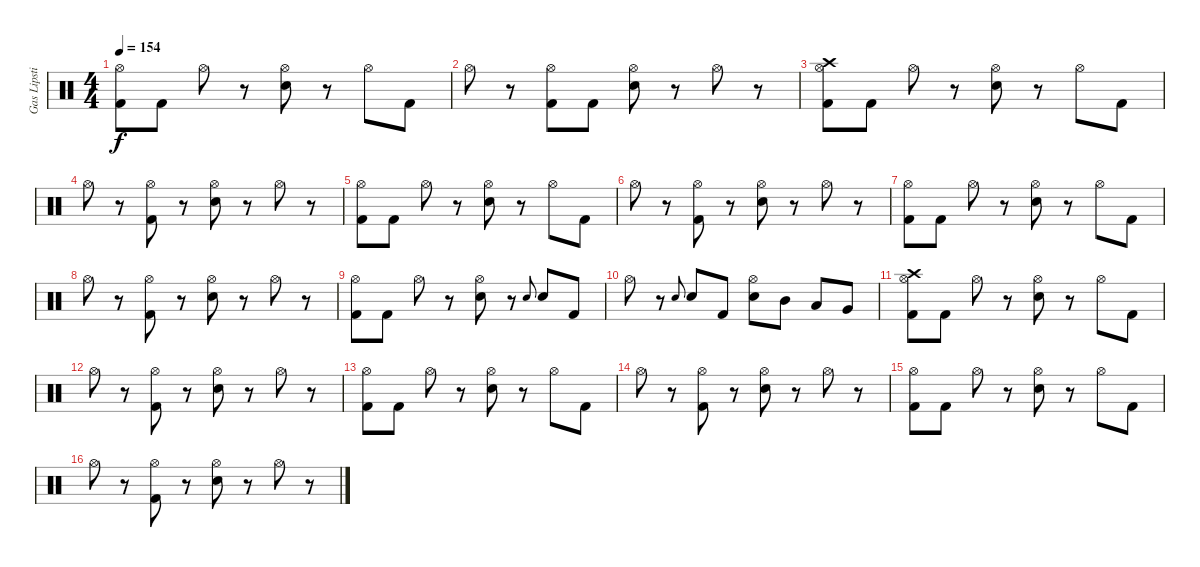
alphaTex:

\track ("Gas Lipstick (Drums)" "Gas Lipsti") {instrument percussion}
\staff {score}
\articulation defaults
\ts (4 4)
\tempo 154
\clef neutral
\ks c
("Hi-Hat (open)" "Kick (hit) 2").8{dy f} "Kick (hit) 2".8 "Hi-Hat (open)".8 r.8 ("Hi-Hat (open)" "Snare (hit) 2").8 r.8 "Hi-Hat (open)".8 "Kick (hit) 2".8 |
"Hi-Hat (open)".8 r.8 ("Hi-Hat (open)" "Kick (hit) 2").8 "Kick (hit) 2".8 ("Hi-Hat (open)" "Snare (hit) 2").8 r.8 "Hi-Hat (open)".8 r.8 |
("Crash high (hit)" "Hi-Hat (open)" "Kick (hit) 2").8 "Kick (hit) 2".8 "Hi-Hat (open)".8 r.8 ("Hi-Hat (open)" "Snare (hit) 2").8 r.8 "Hi-Hat (open)".8 "Kick (hit) 2".8 |
"Hi-Hat (open)".8 r.8 ("Hi-Hat (open)" "Kick (hit) 2").8 r.8 ("Hi-Hat (open)" "Snare (hit) 2").8 r.8 "Hi-Hat (open)".8 r.8 |
("Hi-Hat (open)" "Kick (hit) 2").8 "Kick (hit) 2".8 "Hi-Hat (open)".8 r.8 ("Hi-Hat (open)" "Snare (hit) 2").8 r.8 "Hi-Hat (open)".8 "Kick (hit) 2".8 |
"Hi-Hat (open)".8 r.8 ("Hi-Hat (open)" "Kick (hit) 2").8 r.8 ("Hi-Hat (open)" "Snare (hit) 2").8 r.8 "Hi-Hat (open)".8 r.8 |
("Hi-Hat (open)" "Kick (hit) 2").8 "Kick (hit) 2".8 "Hi-Hat (open)".8 r.8 ("Hi-Hat (open)" "Snare (hit) 2").8 r.8 "Hi-Hat (open)".8 "Kick (hit) 2".8 |
"Hi-Hat (open)".8 r.8 ("Hi-Hat (open)" "Kick (hit) 2").8 r.8 ("Hi-Hat (open)" "Snare (hit) 2").8 r.8 "Hi-Hat (open)".8 r.8 |
("Hi-Hat (open)" "Kick (hit) 2").8 "Kick (hit) 2".8 "Hi-Hat (open)".8 r.8 ("Hi-Hat (open)" "Snare (hit) 2").8 r.8 "Snare (hit) 2".8{gr onbeat} "Snare (hit) 2".8 "Kick (hit) 2".8 |
"Hi-Hat (open)".8 r.8 "Snare (hit) 2".8{gr onbeat} "Snare (hit) 2".8 "Kick (hit) 2".8 ("Hi-Hat (open)" "Snare (hit) 2").8 "Mid Tom (hit)".8 "Low Tom (hit)".8 "Very Low Tom (hit)".8 |
("Crash high (hit)" "Hi-Hat (open)" "Kick (hit) 2").8 "Kick (hit) 2".8 "Hi-Hat (open)".8 r.8 ("Hi-Hat (open)" "Snare (hit) 2").8 r.8 "Hi-Hat (open)".8 "Kick (hit) 2".8 |
"Hi-Hat (open)".8 r.8 ("Hi-Hat (open)" "Kick (hit) 2").8 r.8 ("Hi-Hat (open)" "Snare (hit) 2").8 r.8 "Hi-Hat (open)".8 r.8 |
("Hi-Hat (open)" "Kick (hit) 2").8 "Kick (hit) 2".8 "Hi-Hat (open)".8 r.8 ("Hi-Hat (open)" "Snare (hit) 2").8 r.8 "Hi-Hat (open)".8 "Kick (hit) 2".8 |
"Hi-Hat (open)".8 r.8 ("Hi-Hat (open)" "Kick (hit) 2").8 r.8 ("Hi-Hat (open)" "Snare (hit) 2").8 r.8 "Hi-Hat (open)".8 r.8 |
("Hi-Hat (open)" "Kick (hit) 2").8 "Kick (hit) 2".8 "Hi-Hat (open)".8 r.8 ("Hi-Hat (open)" "Snare (hit) 2").8 r.8 "Hi-Hat (open)".8 "Kick (hit) 2".8 |
"Hi-Hat (open)".8 r.8 ("Hi-Hat (open)" "Kick (hit) 2").8 r.8 ("Hi-Hat (open)" "Snare (hit) 2").8 r.8 "Hi-Hat (open)".8 r.8
